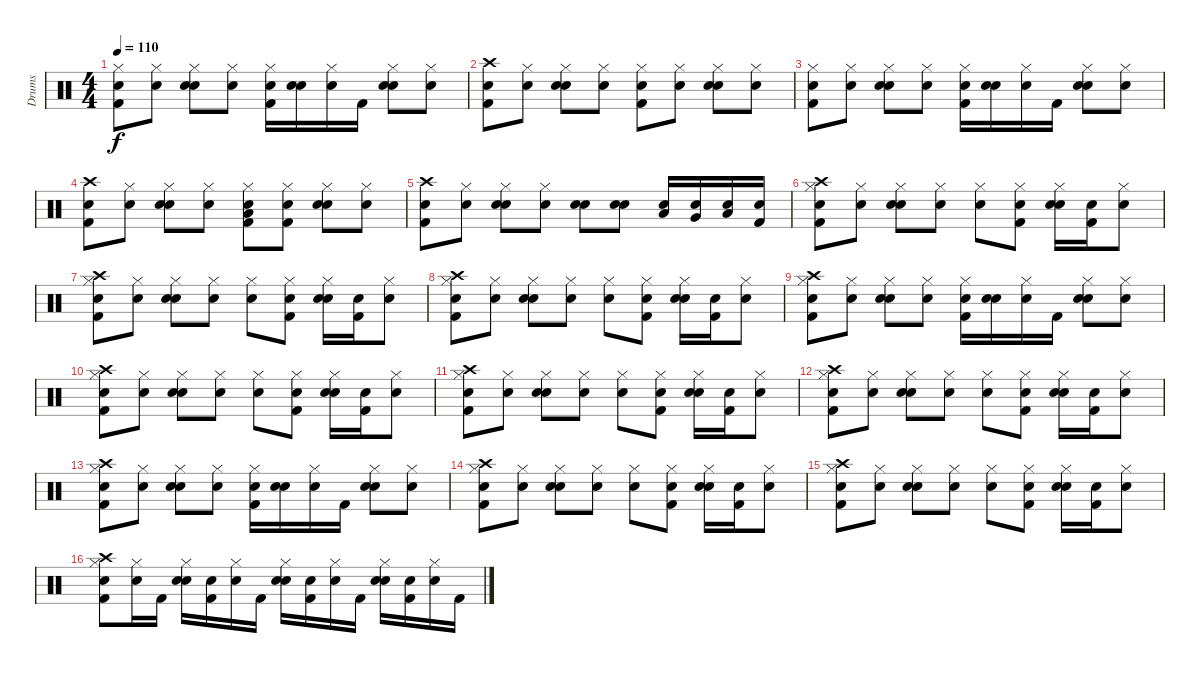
\track ("Drums" "Drums") {instrument percussion}
\staff {score}
\articulation defaults
\ts (4 4)
\tempo 110
\clef neutral
\ks c
("Snare (hit)" "Kick (hit) 2" "Hi-Hat (closed)").8{dy f} ("Snare (hit)" "Hi-Hat (closed)").8 ("Snare (hit)" "Snare (hit) 2" "Hi-Hat (closed)").8 ("Snare (hit)" "Hi-Hat (closed)").8 ("Snare (hit)" "Kick (hit) 2" "Hi-Hat (closed)").16 ("Snare (hit)" "Snare (hit) 2").16 ("Snare (hit)" "Hi-Hat (closed)").16 "Kick (hit) 2".16 ("Snare (hit)" "Snare (hit) 2" "Hi-Hat (closed)").8 ("Snare (hit)" "Hi-Hat (closed)").8 |
("Snare (hit)" "Kick (hit) 2" "Crash high (hit)").8 ("Snare (hit)" "Hi-Hat (closed)").8 ("Snare (hit)" "Snare (hit) 2" "Hi-Hat (closed)").8 ("Snare (hit)" "Hi-Hat (closed)").8 ("Snare (hit)" "Kick (hit) 2" "Hi-Hat (closed)").8 ("Snare (hit)" "Hi-Hat (closed)").8 ("Snare (hit)" "Snare (hit) 2" "Hi-Hat (closed)").8 ("Snare (hit)" "Hi-Hat (closed)").8 |
("Snare (hit)" "Kick (hit) 2" "Hi-Hat (closed)").8 ("Snare (hit)" "Hi-Hat (closed)").8 ("Snare (hit)" "Snare (hit) 2" "Hi-Hat (closed)").8 ("Snare (hit)" "Hi-Hat (closed)").8 ("Snare (hit)" "Kick (hit) 2" "Hi-Hat (closed)").16 ("Snare (hit)" "Snare (hit) 2").16 ("Snare (hit)" "Hi-Hat (closed)").16 "Kick (hit) 2".16 ("Snare (hit)" "Snare (hit) 2" "Hi-Hat (closed)").8 ("Snare (hit)" "Hi-Hat (closed)").8 |
("Snare (hit)" "Kick (hit) 2" "Crash high (hit)").8 ("Snare (hit)" "Hi-Hat (closed)").8 ("Snare (hit)" "Snare (hit) 2" "Hi-Hat (closed)").8 ("Snare (hit)" "Hi-Hat (closed)").8 ("Snare (hit)" "Kick (hit) 2" "Hi-Hat (closed)" "Low Tom (hit)").8 ("Snare (hit)" "Kick (hit) 2" "Hi-Hat (closed)").8 ("Snare (hit)" "Snare (hit) 2" "Hi-Hat (closed)").8 ("Snare (hit)" "Hi-Hat (closed)").8 |
("Snare (hit)" "Kick (hit) 2" "Crash high (hit)").8 ("Snare (hit)" "Hi-Hat (closed)").8 ("Snare (hit)" "Snare (hit) 2" "Hi-Hat (closed)").8 ("Snare (hit)" "Hi-Hat (closed)").8 ("Snare (hit)" "Snare (hit) 2").8 ("Snare (hit)" "Snare (hit) 2").8 ("Snare (hit)" "Low Tom (hit)").16 ("Snare (hit)" "Very Low Tom (hit)").16 ("Snare (hit)" "Low Floor Tom (hit)").16 ("Snare (hit)" "Kick (hit) 2").16 |
("Snare (hit)" "Kick (hit) 2" "Hi-Hat (closed)" "Crash high (hit)").8 ("Snare (hit)" "Hi-Hat (closed)").8 ("Snare (hit)" "Snare (hit) 2" "Hi-Hat (closed)").8 ("Snare (hit)" "Hi-Hat (closed)").8 ("Snare (hit)" "Hi-Hat (closed)").8 ("Snare (hit)" "Kick (hit) 2" "Hi-Hat (closed)").8 ("Snare (hit)" "Snare (hit) 2" "Hi-Hat (closed)").16 ("Snare (hit)" "Kick (hit) 2").16 ("Snare (hit)" "Hi-Hat (closed)").8 |
("Snare (hit)" "Kick (hit) 2" "Hi-Hat (closed)" "Crash high (hit)").8 ("Snare (hit)" "Hi-Hat (closed)").8 ("Snare (hit)" "Snare (hit) 2" "Hi-Hat (closed)").8 ("Snare (hit)" "Hi-Hat (closed)").8 ("Snare (hit)" "Hi-Hat (closed)").8 ("Snare (hit)" "Kick (hit) 2" "Hi-Hat (closed)").8 ("Snare (hit)" "Snare (hit) 2" "Hi-Hat (closed)").16 ("Snare (hit)" "Kick (hit) 2").16 ("Snare (hit)" "Hi-Hat (closed)").8 |
("Snare (hit)" "Kick (hit) 2" "Hi-Hat (closed)" "Crash high (hit)").8 ("Snare (hit)" "Hi-Hat (closed)").8 ("Snare (hit)" "Snare (hit) 2" "Hi-Hat (closed)").8 ("Snare (hit)" "Hi-Hat (closed)").8 ("Snare (hit)" "Hi-Hat (closed)").8 ("Snare (hit)" "Kick (hit) 2" "Hi-Hat (closed)").8 ("Snare (hit)" "Snare (hit) 2" "Hi-Hat (closed)").16 ("Snare (hit)" "Kick (hit) 2").16 ("Snare (hit)" "Hi-Hat (closed)").8 |
("Snare (hit)" "Kick (hit) 2" "Hi-Hat (closed)" "Crash high (hit)").8 ("Snare (hit)" "Hi-Hat (closed)").8 ("Snare (hit)" "Snare (hit) 2" "Hi-Hat (closed)").8 ("Snare (hit)" "Hi-Hat (closed)").8 ("Snare (hit)" "Kick (hit) 2" "Hi-Hat (closed)").16 ("Snare (hit)" "Snare (hit) 2").16 ("Snare (hit)" "Hi-Hat (closed)").16 "Kick (hit) 2".16 ("Snare (hit)" "Snare (hit) 2" "Hi-Hat (closed)").8 ("Snare (hit)" "Hi-Hat (closed)").8 |
("Snare (hit)" "Kick (hit) 2" "Hi-Hat (closed)" "Crash high (hit)").8 ("Snare (hit)" "Hi-Hat (closed)").8 ("Snare (hit)" "Snare (hit) 2" "Hi-Hat (closed)").8 ("Snare (hit)" "Hi-Hat (closed)").8 ("Snare (hit)" "Hi-Hat (closed)").8 ("Snare (hit)" "Kick (hit) 2" "Hi-Hat (closed)").8 ("Snare (hit)" "Snare (hit) 2" "Hi-Hat (closed)").16 ("Snare (hit)" "Kick (hit) 2").16 ("Snare (hit)" "Hi-Hat (closed)").8 |
("Snare (hit)" "Kick (hit) 2" "Hi-Hat (closed)" "Crash high (hit)").8 ("Snare (hit)" "Hi-Hat (closed)").8 ("Snare (hit)" "Snare (hit) 2" "Hi-Hat (closed)").8 ("Snare (hit)" "Hi-Hat (closed)").8 ("Snare (hit)" "Hi-Hat (closed)").8 ("Snare (hit)" "Kick (hit) 2" "Hi-Hat (closed)").8 ("Snare (hit)" "Snare (hit) 2" "Hi-Hat (closed)").16 ("Snare (hit)" "Kick (hit) 2").16 ("Snare (hit)" "Hi-Hat (closed)").8 |
("Snare (hit)" "Kick (hit) 2" "Hi-Hat (closed)" "Crash high (hit)").8 ("Snare (hit)" "Hi-Hat (closed)").8 ("Snare (hit)" "Snare (hit) 2" "Hi-Hat (closed)").8 ("Snare (hit)" "Hi-Hat (closed)").8 ("Snare (hit)" "Hi-Hat (closed)").8 ("Snare (hit)" "Kick (hit) 2" "Hi-Hat (closed)").8 ("Snare (hit)" "Snare (hit) 2" "Hi-Hat (closed)").16 ("Snare (hit)" "Kick (hit) 2").16 ("Snare (hit)" "Hi-Hat (closed)").8 |
("Snare (hit)" "Kick (hit) 2" "Hi-Hat (closed)" "Crash high (hit)").8 ("Snare (hit)" "Hi-Hat (closed)").8 ("Snare (hit)" "Snare (hit) 2" "Hi-Hat (closed)").8 ("Snare (hit)" "Hi-Hat (closed)").8 ("Snare (hit)" "Kick (hit) 2" "Hi-Hat (closed)").16 ("Snare (hit)" "Snare (hit) 2").16 ("Snare (hit)" "Hi-Hat (closed)").16 "Kick (hit) 2".16 ("Snare (hit)" "Snare (hit) 2" "Hi-Hat (closed)").8 ("Snare (hit)" "Hi-Hat (closed)").8 |
("Snare (hit)" "Kick (hit) 2" "Hi-Hat (closed)" "Crash high (hit)").8 ("Snare (hit)" "Hi-Hat (closed)").8 ("Snare (hit)" "Snare (hit) 2" "Hi-Hat (closed)").8 ("Snare (hit)" "Hi-Hat (closed)").8 ("Snare (hit)" "Hi-Hat (closed)").8 ("Snare (hit)" "Kick (hit) 2" "Hi-Hat (closed)").8 ("Snare (hit)" "Snare (hit) 2" "Hi-Hat (closed)").16 ("Snare (hit)" "Kick (hit) 2").16 ("Snare (hit)" "Hi-Hat (closed)").8 |
("Snare (hit)" "Kick (hit) 2" "Hi-Hat (closed)" "Crash high (hit)").8 ("Snare (hit)" "Hi-Hat (closed)").8 ("Snare (hit)" "Snare (hit) 2" "Hi-Hat (closed)").8 ("Snare (hit)" "Hi-Hat (closed)").8 ("Snare (hit)" "Hi-Hat (closed)").8 ("Snare (hit)" "Kick (hit) 2" "Hi-Hat (closed)").8 ("Snare (hit)" "Snare (hit) 2" "Hi-Hat (closed)").16 ("Snare (hit)" "Kick (hit) 2").16 ("Snare (hit)" "Hi-Hat (closed)").8 |
("Snare (hit)" "Kick (hit) 2" "Hi-Hat (closed)" "Crash high (hit)").8 ("Snare (hit)" "Hi-Hat (closed)").16 "Kick (hit) 2".16 ("Snare (hit)" "Snare (hit) 2" "Hi-Hat (closed)").16 ("Snare (hit)" "Kick (hit) 2").16 ("Snare (hit)" "Hi-Hat (closed)").16 "Kick (hit) 2".16 ("Snare (hit)" "Snare (hit) 2" "Hi-Hat (closed)").16 ("Snare (hit)" "Kick (hit) 2").16 ("Snare (hit)" "Hi-Hat (closed)").16 "Kick (hit) 2".16 ("Snare (hit)" "Snare (hit) 2" "Hi-Hat (closed)").16 ("Snare (hit)" "Kick (hit) 2").16 ("Snare (hit)" "Hi-Hat (closed)").16 "Kick (hit) 2".16
